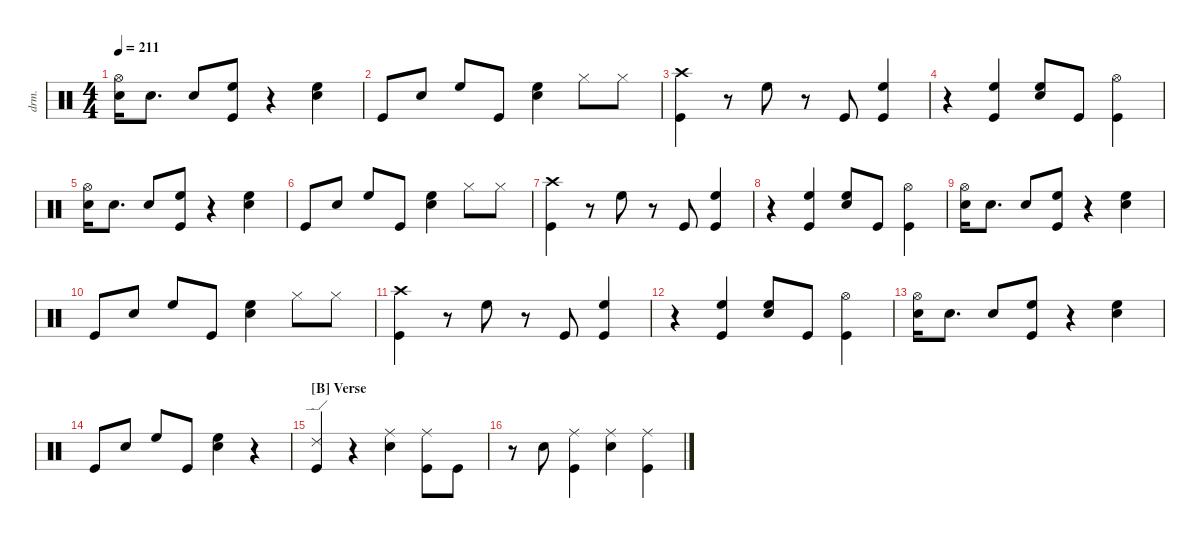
\defaultSystemsLayout 4
\hideDynamics
\bracketExtendMode nobrackets
\track ("Drums" "drm.") {instrument percussion}
\staff {score}
\articulation defaults
\ts (4 4)
\tempo 211
\clef neutral
\ks c
("Snare (hit) 2" "Hi-Hat (open)"{acc #}).16{dy f} "Snare (hit) 2".8{d dy mp} "Snare (hit) 2".8{dy ff} ("Kick (hit)" "High Floor Tom (hit)").8 r.4 ("Snare (hit) 2" "High Floor Tom (hit)").4 |
"Kick (hit)".8 "Snare (hit) 2".8 "High Floor Tom (hit)".8{dy mf} "Kick (hit)".8{dy ff} ("Snare (hit) 2" "High Floor Tom (hit)").4 "Hi-Hat (closed)"{acc #}.8 "Hi-Hat (closed)"{acc #}.8 |
("Kick (hit)" "Crash high (hit)"{acc #}).4 r.8 "High Floor Tom (hit)".8{dy f} r.8 "Kick (hit)".8{dy mf} ("Kick (hit)" "High Floor Tom (hit)").4{dy ff} |
r.4 ("Kick (hit)" "High Floor Tom (hit)").4 ("Snare (hit) 2" "High Floor Tom (hit)").8 "Kick (hit)".8{dy mf} ("Kick (hit)" "Hi-Hat (open)"{acc #}).4{dy ff} |
("Snare (hit) 2" "Hi-Hat (open)"{acc #}).16{dy f} "Snare (hit) 2".8{d dy mp} "Snare (hit) 2".8{dy ff} ("Kick (hit)" "High Floor Tom (hit)").8 r.4 ("Snare (hit) 2" "High Floor Tom (hit)").4 |
"Kick (hit)".8 "Snare (hit) 2".8 "High Floor Tom (hit)".8{dy mf} "Kick (hit)".8{dy ff} ("Snare (hit) 2" "High Floor Tom (hit)").4 "Hi-Hat (closed)"{acc #}.8 "Hi-Hat (closed)"{acc #}.8 |
("Kick (hit)" "Crash high (hit)"{acc #}).4 r.8 "High Floor Tom (hit)".8{dy f} r.8 "Kick (hit)".8{dy mf} ("Kick (hit)" "High Floor Tom (hit)").4{dy ff} |
r.4 ("Kick (hit)" "High Floor Tom (hit)").4 ("Snare (hit) 2" "High Floor Tom (hit)").8 "Kick (hit)".8{dy mf} ("Kick (hit)" "Hi-Hat (open)"{acc #}).4{dy ff} |
("Snare (hit) 2" "Hi-Hat (open)"{acc #}).16{dy f} "Snare (hit) 2".8{d dy mp} "Snare (hit) 2".8{dy ff} ("Kick (hit)" "High Floor Tom (hit)").8 r.4 ("Snare (hit) 2" "High Floor Tom (hit)").4 |
"Kick (hit)".8 "Snare (hit) 2".8 "High Floor Tom (hit)".8{dy mf} "Kick (hit)".8{dy ff} ("Snare (hit) 2" "High Floor Tom (hit)").4 "Hi-Hat (closed)"{acc #}.8 "Hi-Hat (closed)"{acc #}.8 |
("Kick (hit)" "Crash high (hit)"{acc #}).4 r.8 "High Floor Tom (hit)".8{dy f} r.8 "Kick (hit)".8{dy mf} ("Kick (hit)" "High Floor Tom (hit)").4{dy ff} |
r.4 ("Kick (hit)" "High Floor Tom (hit)").4 ("Snare (hit) 2" "High Floor Tom (hit)").8 "Kick (hit)".8{dy mf} ("Kick (hit)" "Hi-Hat (open)"{acc #}).4{dy ff} |
("Snare (hit) 2" "Hi-Hat (open)"{acc #}).16{dy f} "Snare (hit) 2".8{d dy mp} "Snare (hit) 2".8{dy ff} ("Kick (hit)" "High Floor Tom (hit)").8 r.4 ("Snare (hit) 2" "High Floor Tom (hit)").4 |
"Kick (hit)".8 "Snare (hit) 2".8 "High Floor Tom (hit)".8{dy mf} "Kick (hit)".8{dy ff} ("Snare (hit) 2" "High Floor Tom (hit)").4{dy fff} r.4 |
\section ("B" "Verse")
("Kick (hit)" "Ride (edge) 2").4 r.4 ("Snare (hit) 2" "Ride (middle)"{acc #}).4{dy ff} ("Kick (hit)" "Ride (middle)"{acc #}).8{dy f} "Kick (hit)".8{dy fff} |
r.8 "Snare (hit) 2".8{dy p} ("Kick (hit)" "Ride (middle)"{acc #}).4{dy ff} ("Snare (hit) 2" "Ride (middle)"{acc #}).4 ("Kick (hit)" "Ride (middle)"{acc #}).4{dy mf}
